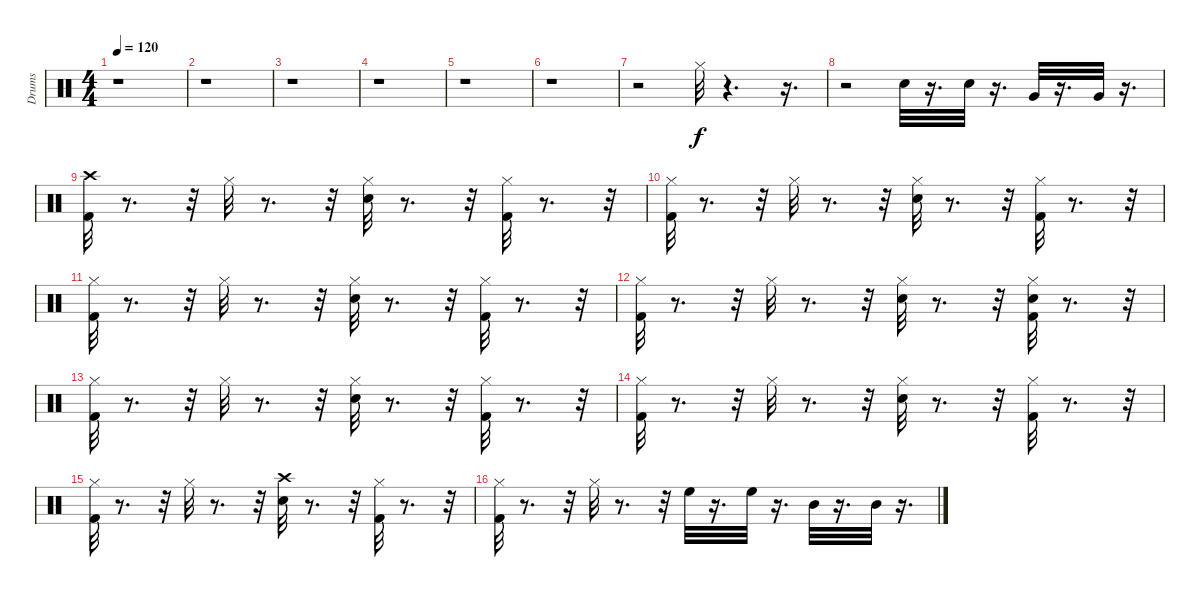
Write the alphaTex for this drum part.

\track ("Drums" "Drums") {instrument percussion}
\staff {score}
\articulation defaults
\ts (4 4)
\tempo 120
\clef neutral
\ks c
r.1{dy f} |
r.1 |
r.1 |
r.1 |
r.1 |
r.1 |
r.2 "Hi-Hat (closed)".32 r.4{d} r.16{d} |
r.2 "Snare (hit) 2".32 r.16{d} "Snare (hit) 2".32 r.16{d} "Very Low Tom (hit)".32 r.16{d} "Very Low Tom (hit)".32 r.16{d} |
("Crash high (hit)" "Kick (hit) 2").32 r.8{d} r.32 "Hi-Hat (closed)".32 r.8{d} r.32 ("Snare (hit) 2" "Hi-Hat (closed)").32 r.8{d} r.32 ("Kick (hit) 2" "Hi-Hat (closed)").32 r.8{d} r.32 |
("Hi-Hat (closed)" "Kick (hit) 2").32 r.8{d} r.32 "Hi-Hat (closed)".32 r.8{d} r.32 ("Snare (hit) 2" "Hi-Hat (closed)").32 r.8{d} r.32 ("Kick (hit) 2" "Hi-Hat (closed)").32 r.8{d} r.32 |
("Hi-Hat (closed)" "Kick (hit) 2").32 r.8{d} r.32 "Hi-Hat (closed)".32 r.8{d} r.32 ("Hi-Hat (closed)" "Snare (hit) 2").32 r.8{d} r.32 ("Kick (hit) 2" "Hi-Hat (closed)").32 r.8{d} r.32 |
("Hi-Hat (closed)" "Kick (hit) 2").32 r.8{d} r.32 "Hi-Hat (closed)".32 r.8{d} r.32 ("Hi-Hat (closed)" "Snare (hit) 2").32 r.8{d} r.32 ("Hi-Hat (closed)" "Kick (hit) 2" "Snare (hit) 2").32 r.8{d} r.32 |
("Hi-Hat (closed)" "Kick (hit) 2").32 r.8{d} r.32 "Hi-Hat (closed)".32 r.8{d} r.32 ("Snare (hit) 2" "Hi-Hat (closed)").32 r.8{d} r.32 ("Kick (hit) 2" "Hi-Hat (closed)").32 r.8{d} r.32 |
("Hi-Hat (closed)" "Kick (hit) 2").32 r.8{d} r.32 "Hi-Hat (closed)".32 r.8{d} r.32 ("Snare (hit) 2" "Hi-Hat (closed)").32 r.8{d} r.32 ("Kick (hit) 2" "Hi-Hat (closed)").32 r.8{d} r.32 |
("Kick (hit) 2" "Hi-Hat (closed)").32 r.8{d} r.32 "Hi-Hat (closed)".32 r.8{d} r.32 ("Crash high (hit)" "Snare (hit) 2").32 r.8{d} r.32 ("Hi-Hat (closed)" "Kick (hit) 2").32 r.8{d} r.32 |
("Kick (hit) 2" "Hi-Hat (closed)").32 r.8{d} r.32 "Hi-Hat (closed)".32 r.8{d} r.32 "High Floor Tom (hit)".32 r.16{d} "High Floor Tom (hit)".32 r.16{d} "Mid Tom (hit)".32 r.16{d} "Mid Tom (hit)".32 r.16{d}
